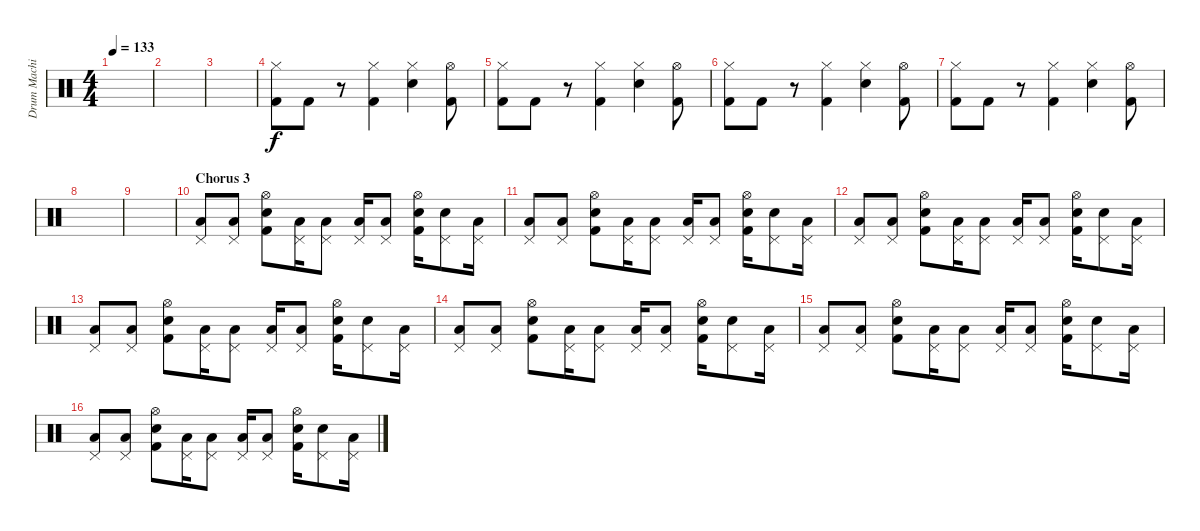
\track ("Drum Machine" "Drum Machi") {instrument percussion}
\staff {score}
\articulation defaults
\ts (4 4)
\tempo 133
\clef neutral
\ks c
|
|
|
("Hi-Hat (closed)" "Kick (hit) 2").8 "Kick (hit) 2".8 r.8 ("Hi-Hat (closed)" "Kick (hit) 2").4 ("Hi-Hat (closed)" "Snare (hit) 2").4 ("Hi-Hat (open)" "Kick (hit) 2").8 |
("Hi-Hat (closed)" "Kick (hit) 2").8 "Kick (hit) 2".8 r.8 ("Hi-Hat (closed)" "Kick (hit) 2").4 ("Hi-Hat (closed)" "Snare (hit) 2").4 ("Hi-Hat (open)" "Kick (hit) 2").8 |
("Hi-Hat (closed)" "Kick (hit) 2").8 "Kick (hit) 2".8 r.8 ("Hi-Hat (closed)" "Kick (hit) 2").4 ("Hi-Hat (closed)" "Snare (hit) 2").4 ("Hi-Hat (open)" "Kick (hit) 2").8 |
("Hi-Hat (closed)" "Kick (hit) 2").8 "Kick (hit) 2".8 r.8 ("Hi-Hat (closed)" "Kick (hit) 2").4 ("Hi-Hat (closed)" "Snare (hit) 2").4 ("Hi-Hat (open)" "Kick (hit) 2").8 |
|
|
\section ("" "Chorus 3")
("Pedal Hi-Hat (hit)" "Low Tom (hit)").8 ("Pedal Hi-Hat (hit)" "Low Tom (hit)").8 ("Hi-Hat (open)" "Snare (hit) 2" "Kick (hit) 2").8 ("Pedal Hi-Hat (hit)" "Low Tom (hit)").16 ("Pedal Hi-Hat (hit)" "Low Tom (hit)").8 ("Pedal Hi-Hat (hit)" "Low Tom (hit)").16 ("Pedal Hi-Hat (hit)" "Low Tom (hit)").8 ("Hi-Hat (open)" "Snare (hit) 2" "Kick (hit) 2").16 ("Pedal Hi-Hat (hit)" "Snare (hit) 2").8 ("Pedal Hi-Hat (hit)" "Low Tom (hit)").16 |
("Pedal Hi-Hat (hit)" "Low Tom (hit)").8 ("Pedal Hi-Hat (hit)" "Low Tom (hit)").8 ("Hi-Hat (open)" "Snare (hit) 2" "Kick (hit) 2").8 ("Pedal Hi-Hat (hit)" "Low Tom (hit)").16 ("Pedal Hi-Hat (hit)" "Low Tom (hit)").8 ("Pedal Hi-Hat (hit)" "Low Tom (hit)").16 ("Pedal Hi-Hat (hit)" "Low Tom (hit)").8 ("Hi-Hat (open)" "Snare (hit) 2" "Kick (hit) 2").16 ("Pedal Hi-Hat (hit)" "Snare (hit) 2").8 ("Pedal Hi-Hat (hit)" "Low Tom (hit)").16 |
("Pedal Hi-Hat (hit)" "Low Tom (hit)").8 ("Pedal Hi-Hat (hit)" "Low Tom (hit)").8 ("Hi-Hat (open)" "Snare (hit) 2" "Kick (hit) 2").8 ("Pedal Hi-Hat (hit)" "Low Tom (hit)").16 ("Pedal Hi-Hat (hit)" "Low Tom (hit)").8 ("Pedal Hi-Hat (hit)" "Low Tom (hit)").16 ("Pedal Hi-Hat (hit)" "Low Tom (hit)").8 ("Hi-Hat (open)" "Snare (hit) 2" "Kick (hit) 2").16 ("Pedal Hi-Hat (hit)" "Snare (hit) 2").8 ("Pedal Hi-Hat (hit)" "Low Tom (hit)").16 |
("Pedal Hi-Hat (hit)" "Low Tom (hit)").8 ("Pedal Hi-Hat (hit)" "Low Tom (hit)").8 ("Hi-Hat (open)" "Snare (hit) 2" "Kick (hit) 2").8 ("Pedal Hi-Hat (hit)" "Low Tom (hit)").16 ("Pedal Hi-Hat (hit)" "Low Tom (hit)").8 ("Pedal Hi-Hat (hit)" "Low Tom (hit)").16 ("Pedal Hi-Hat (hit)" "Low Tom (hit)").8 ("Hi-Hat (open)" "Snare (hit) 2" "Kick (hit) 2").16 ("Pedal Hi-Hat (hit)" "Snare (hit) 2").8 ("Pedal Hi-Hat (hit)" "Low Tom (hit)").16 |
("Pedal Hi-Hat (hit)" "Low Tom (hit)").8 ("Pedal Hi-Hat (hit)" "Low Tom (hit)").8 ("Hi-Hat (open)" "Snare (hit) 2" "Kick (hit) 2").8 ("Pedal Hi-Hat (hit)" "Low Tom (hit)").16 ("Pedal Hi-Hat (hit)" "Low Tom (hit)").8 ("Pedal Hi-Hat (hit)" "Low Tom (hit)").16 ("Pedal Hi-Hat (hit)" "Low Tom (hit)").8 ("Hi-Hat (open)" "Snare (hit) 2" "Kick (hit) 2").16 ("Pedal Hi-Hat (hit)" "Snare (hit) 2").8 ("Pedal Hi-Hat (hit)" "Low Tom (hit)").16 |
("Pedal Hi-Hat (hit)" "Low Tom (hit)").8 ("Pedal Hi-Hat (hit)" "Low Tom (hit)").8 ("Hi-Hat (open)" "Snare (hit) 2" "Kick (hit) 2").8 ("Pedal Hi-Hat (hit)" "Low Tom (hit)").16 ("Pedal Hi-Hat (hit)" "Low Tom (hit)").8 ("Pedal Hi-Hat (hit)" "Low Tom (hit)").16 ("Pedal Hi-Hat (hit)" "Low Tom (hit)").8 ("Hi-Hat (open)" "Snare (hit) 2" "Kick (hit) 2").16 ("Pedal Hi-Hat (hit)" "Snare (hit) 2").8 ("Pedal Hi-Hat (hit)" "Low Tom (hit)").16 |
("Pedal Hi-Hat (hit)" "Low Tom (hit)").8 ("Pedal Hi-Hat (hit)" "Low Tom (hit)").8 ("Hi-Hat (open)" "Snare (hit) 2" "Kick (hit) 2").8 ("Pedal Hi-Hat (hit)" "Low Tom (hit)").16 ("Pedal Hi-Hat (hit)" "Low Tom (hit)").8 ("Pedal Hi-Hat (hit)" "Low Tom (hit)").16 ("Pedal Hi-Hat (hit)" "Low Tom (hit)").8 ("Hi-Hat (open)" "Snare (hit) 2" "Kick (hit) 2").16 ("Pedal Hi-Hat (hit)" "Snare (hit) 2").8 ("Pedal Hi-Hat (hit)" "Low Tom (hit)").16
